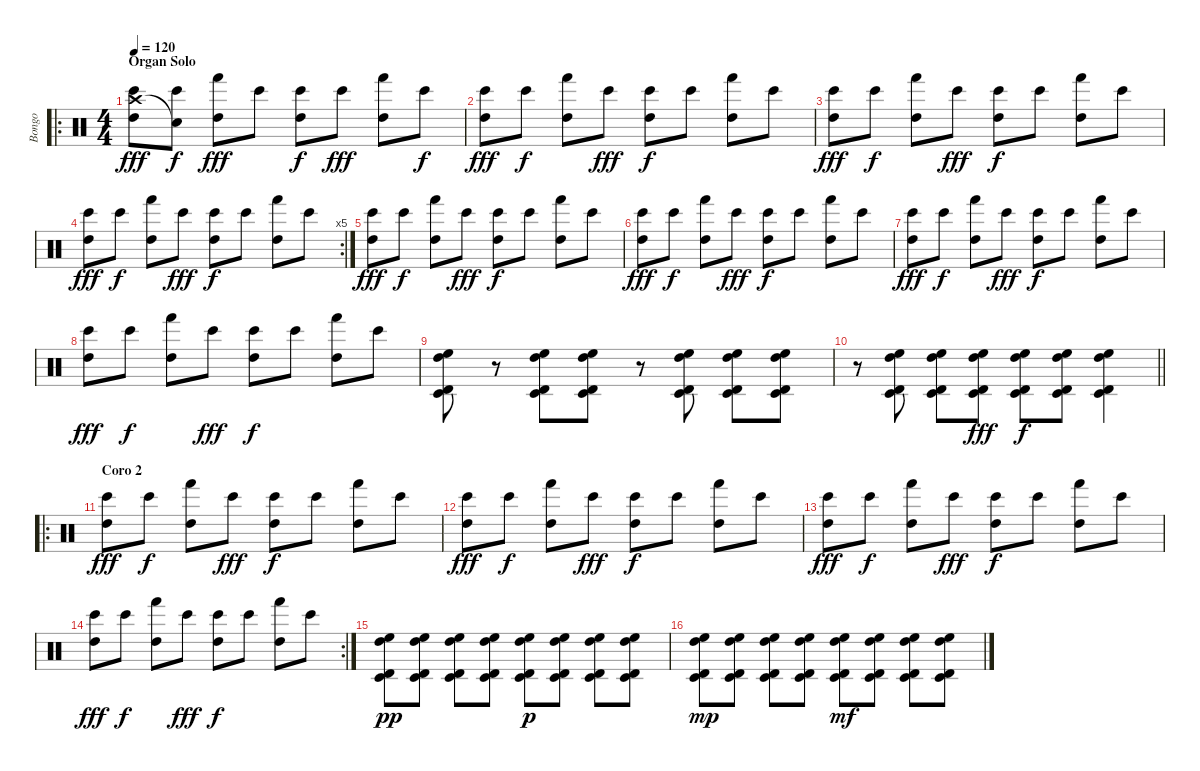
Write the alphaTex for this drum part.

\track ("Bongo" "Bongo") {instrument percussion}
\staff {score}
\articulation defaults
\ro
\ts (4 4)
\section ("" "Organ Solo")
\tempo 120
\clef neutral
\ks c
("Crash high (hit)" "Bongo High (hit)" "High Tom (hit)").8{dy fff} ("Snare (hit)"{t} "Bongo High (hit)").8{dy f} ("Hand (hit)" "High Tom (hit)").8{dy fff} "Bongo High (hit)".8 ("Bongo High (hit)" "High Tom (hit)").8{dy f} "Bongo High (hit)".8{dy fff} ("Hand (hit)" "High Tom (hit)").8 "Bongo High (hit)".8{dy f} |
("Bongo High (hit)" "High Tom (hit)").8{dy fff} "Bongo High (hit)".8{dy f} ("Hand (hit)" "High Tom (hit)").8 "Bongo High (hit)".8{dy fff} ("Bongo High (hit)" "High Tom (hit)").8{dy f} "Bongo High (hit)".8 ("Hand (hit)" "High Tom (hit)").8 "Bongo High (hit)".8 |
("Bongo High (hit)" "High Tom (hit)").8{dy fff} "Bongo High (hit)".8{dy f} ("Hand (hit)" "High Tom (hit)").8 "Bongo High (hit)".8{dy fff} ("Bongo High (hit)" "High Tom (hit)").8{dy f} "Bongo High (hit)".8 ("Hand (hit)" "High Tom (hit)").8 "Bongo High (hit)".8 |
\rc 5
("Bongo High (hit)" "High Tom (hit)").8{dy fff} "Bongo High (hit)".8{dy f} ("Hand (hit)" "High Tom (hit)").8 "Bongo High (hit)".8{dy fff} ("Bongo High (hit)" "High Tom (hit)").8{dy f} "Bongo High (hit)".8 ("Hand (hit)" "High Tom (hit)").8 "Bongo High (hit)".8 |
("Bongo High (hit)" "High Tom (hit)").8{dy fff} "Bongo High (hit)".8{dy f} ("Hand (hit)" "High Tom (hit)").8 "Bongo High (hit)".8{dy fff} ("Bongo High (hit)" "High Tom (hit)").8{dy f} "Bongo High (hit)".8 ("Hand (hit)" "High Tom (hit)").8 "Bongo High (hit)".8 |
("Bongo High (hit)" "High Tom (hit)").8{dy fff} "Bongo High (hit)".8{dy f} ("Hand (hit)" "High Tom (hit)").8 "Bongo High (hit)".8{dy fff} ("Bongo High (hit)" "High Tom (hit)").8{dy f} "Bongo High (hit)".8 ("Hand (hit)" "High Tom (hit)").8 "Bongo High (hit)".8 |
("Bongo High (hit)" "High Tom (hit)").8{dy fff} "Bongo High (hit)".8{dy f} ("Hand (hit)" "High Tom (hit)").8 "Bongo High (hit)".8{dy fff} ("Bongo High (hit)" "High Tom (hit)").8{dy f} "Bongo High (hit)".8 ("Hand (hit)" "High Tom (hit)").8 "Bongo High (hit)".8 |
("Bongo High (hit)" "High Tom (hit)").8{dy fff} "Bongo High (hit)".8{dy f} ("Hand (hit)" "High Tom (hit)").8 "Bongo High (hit)".8{dy fff} ("Bongo High (hit)" "High Tom (hit)").8{dy f} "Bongo High (hit)".8 ("Hand (hit)" "High Tom (hit)").8 "Bongo High (hit)".8 |
("Timbale low (hit)" "Timbale high (hit)" "High Floor Tom (hit)" "High Tom (hit)").8 r.8 ("Timbale low (hit)" "Timbale high (hit)" "High Floor Tom (hit)" "High Tom (hit)").8 ("Timbale low (hit)" "Timbale high (hit)" "High Floor Tom (hit)" "High Tom (hit)").8 r.8 ("Timbale low (hit)" "Timbale high (hit)" "High Floor Tom (hit)" "High Tom (hit)").8 ("Timbale low (hit)" "Timbale high (hit)" "High Floor Tom (hit)" "High Tom (hit)").8 ("Timbale low (hit)" "Timbale high (hit)" "High Floor Tom (hit)" "High Tom (hit)").8 |
\barLineRight lightlight
r.8 ("Timbale low (hit)" "Timbale high (hit)" "High Floor Tom (hit)" "High Tom (hit)").8 ("Timbale low (hit)" "Timbale high (hit)" "High Floor Tom (hit)" "High Tom (hit)").8 ("Timbale low (hit)" "Timbale high (hit)" "High Floor Tom (hit)" "High Tom (hit)").8{dy fff} ("Timbale low (hit)" "Timbale high (hit)" "High Floor Tom (hit)" "High Tom (hit)").8{dy f} ("Timbale low (hit)" "Timbale high (hit)" "High Floor Tom (hit)" "High Tom (hit)").8 ("Timbale low (hit)" "Timbale high (hit)" "High Floor Tom (hit)" "High Tom (hit)").4 |
\ro
\section ("" "Coro 2")
("Bongo High (hit)" "High Tom (hit)").8{dy fff} "Bongo High (hit)".8{dy f} ("Hand (hit)" "High Tom (hit)").8 "Bongo High (hit)".8{dy fff} ("Bongo High (hit)" "High Tom (hit)").8{dy f} "Bongo High (hit)".8 ("Hand (hit)" "High Tom (hit)").8 "Bongo High (hit)".8 |
("Bongo High (hit)" "High Tom (hit)").8{dy fff} "Bongo High (hit)".8{dy f} ("Hand (hit)" "High Tom (hit)").8 "Bongo High (hit)".8{dy fff} ("Bongo High (hit)" "High Tom (hit)").8{dy f} "Bongo High (hit)".8 ("Hand (hit)" "High Tom (hit)").8 "Bongo High (hit)".8 |
("Bongo High (hit)" "High Tom (hit)").8{dy fff} "Bongo High (hit)".8{dy f} ("Hand (hit)" "High Tom (hit)").8 "Bongo High (hit)".8{dy fff} ("Bongo High (hit)" "High Tom (hit)").8{dy f} "Bongo High (hit)".8 ("Hand (hit)" "High Tom (hit)").8 "Bongo High (hit)".8 |
\rc 2
("Bongo High (hit)" "High Tom (hit)").8{dy fff} "Bongo High (hit)".8{dy f} ("Hand (hit)" "High Tom (hit)").8 "Bongo High (hit)".8{dy fff} ("Bongo High (hit)" "High Tom (hit)").8{dy f} "Bongo High (hit)".8 ("Hand (hit)" "High Tom (hit)").8 "Bongo High (hit)".8 |
("Timbale low (hit)" "Timbale high (hit)" "High Floor Tom (hit)" "High Tom (hit)").8{dy pp} ("Timbale low (hit)" "Timbale high (hit)" "High Floor Tom (hit)" "High Tom (hit)").8 ("Timbale low (hit)" "Timbale high (hit)" "High Floor Tom (hit)" "High Tom (hit)").8 ("Timbale low (hit)" "Timbale high (hit)" "High Floor Tom (hit)" "High Tom (hit)").8 ("Timbale low (hit)" "Timbale high (hit)" "High Floor Tom (hit)" "High Tom (hit)").8{dy p} ("Timbale low (hit)" "Timbale high (hit)" "High Floor Tom (hit)" "High Tom (hit)").8 ("Timbale low (hit)" "Timbale high (hit)" "High Floor Tom (hit)" "High Tom (hit)").8 ("Timbale low (hit)" "Timbale high (hit)" "High Floor Tom (hit)" "High Tom (hit)").8 |
("Timbale low (hit)" "Timbale high (hit)" "High Floor Tom (hit)" "High Tom (hit)").8{dy mp} ("Timbale low (hit)" "Timbale high (hit)" "High Floor Tom (hit)" "High Tom (hit)").8 ("Timbale low (hit)" "Timbale high (hit)" "High Floor Tom (hit)" "High Tom (hit)").8 ("Timbale low (hit)" "Timbale high (hit)" "High Floor Tom (hit)" "High Tom (hit)").8 ("Timbale low (hit)" "Timbale high (hit)" "High Floor Tom (hit)" "High Tom (hit)").8{dy mf} ("Timbale low (hit)" "Timbale high (hit)" "High Floor Tom (hit)" "High Tom (hit)").8 ("Timbale low (hit)" "Timbale high (hit)" "High Floor Tom (hit)" "High Tom (hit)").8 ("Timbale low (hit)" "Timbale high (hit)" "High Floor Tom (hit)" "High Tom (hit)").8
